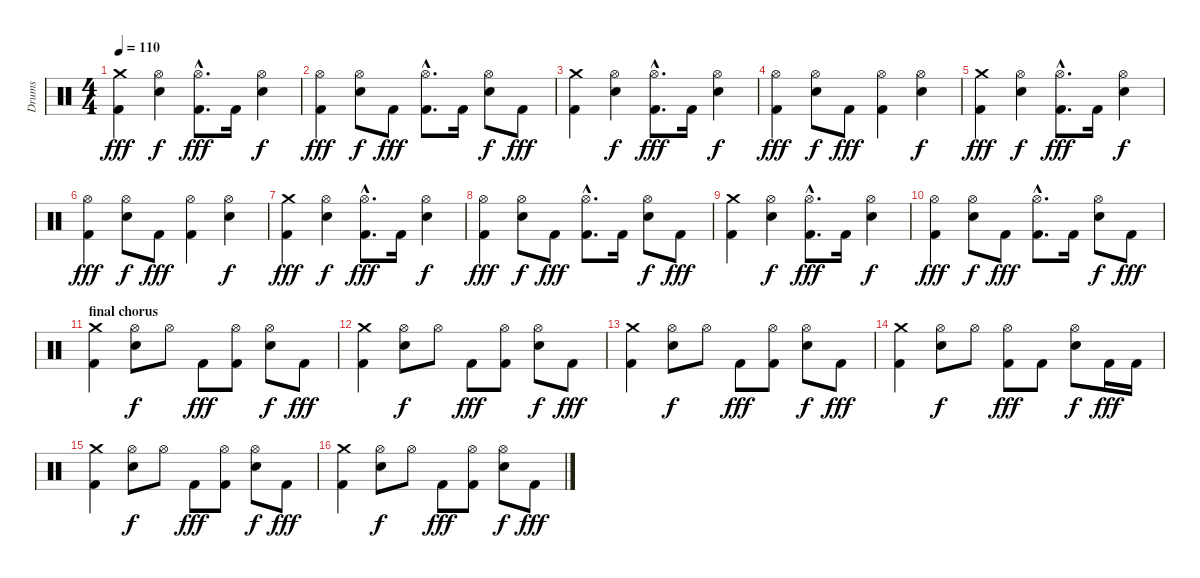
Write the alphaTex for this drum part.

\track ("Drums" "Drums") {instrument percussion}
\staff {score}
\articulation defaults
\ts (4 4)
\tempo 110
\clef neutral
\ks c
("Crash medium (hit)" "Kick (hit) 2").4{dy fff} ("Hi-Hat (open)" "Electric Snare (hit)").4{dy f} ("Hi-Hat (open)"{hac} "Kick (hit) 2"{hac}).8{d dy fff} "Kick (hit) 2".16 ("Hi-Hat (open)" "Electric Snare (hit)").4{dy f} |
("Hi-Hat (open)" "Kick (hit) 2").4{dy fff} ("Hi-Hat (open)" "Electric Snare (hit)").8{dy f} "Kick (hit) 2".8{dy fff} ("Hi-Hat (open)"{hac} "Kick (hit) 2"{hac}).8{d} "Kick (hit) 2".16 ("Hi-Hat (open)" "Electric Snare (hit)").8{dy f} "Kick (hit) 2".8{dy fff} |
("Crash medium (hit)" "Kick (hit) 2").4 ("Hi-Hat (open)" "Electric Snare (hit)").4{dy f} ("Hi-Hat (open)"{hac} "Kick (hit) 2"{hac}).8{d dy fff} "Kick (hit) 2".16 ("Hi-Hat (open)" "Electric Snare (hit)").4{dy f} |
("Hi-Hat (open)" "Kick (hit) 2").4{dy fff} ("Hi-Hat (open)" "Electric Snare (hit)").8{dy f} "Kick (hit) 2".8{dy fff} ("Hi-Hat (open)" "Kick (hit) 2").4 ("Hi-Hat (open)" "Electric Snare (hit)").4{dy f} |
("Crash medium (hit)" "Kick (hit) 2").4{dy fff} ("Hi-Hat (open)" "Electric Snare (hit)").4{dy f} ("Hi-Hat (open)"{hac} "Kick (hit) 2"{hac}).8{d dy fff} "Kick (hit) 2".16 ("Hi-Hat (open)" "Electric Snare (hit)").4{dy f} |
("Hi-Hat (open)" "Kick (hit) 2").4{dy fff} ("Hi-Hat (open)" "Electric Snare (hit)").8{dy f} "Kick (hit) 2".8{dy fff} ("Hi-Hat (open)" "Kick (hit) 2").4 ("Hi-Hat (open)" "Electric Snare (hit)").4{dy f} |
("Crash medium (hit)" "Kick (hit) 2").4{dy fff} ("Hi-Hat (open)" "Electric Snare (hit)").4{dy f} ("Hi-Hat (open)"{hac} "Kick (hit) 2"{hac}).8{d dy fff} "Kick (hit) 2".16 ("Hi-Hat (open)" "Electric Snare (hit)").4{dy f} |
("Hi-Hat (open)" "Kick (hit) 2").4{dy fff} ("Hi-Hat (open)" "Electric Snare (hit)").8{dy f} "Kick (hit) 2".8{dy fff} ("Hi-Hat (open)"{hac} "Kick (hit) 2"{hac}).8{d} "Kick (hit) 2".16 ("Hi-Hat (open)" "Electric Snare (hit)").8{dy f} "Kick (hit) 2".8{dy fff} |
("Crash medium (hit)" "Kick (hit) 2").4 ("Hi-Hat (open)" "Electric Snare (hit)").4{dy f} ("Hi-Hat (open)"{hac} "Kick (hit) 2"{hac}).8{d dy fff} "Kick (hit) 2".16 ("Hi-Hat (open)" "Electric Snare (hit)").4{dy f} |
("Hi-Hat (open)" "Kick (hit) 2").4{dy fff} ("Hi-Hat (open)" "Electric Snare (hit)").8{dy f} "Kick (hit) 2".8{dy fff} ("Hi-Hat (open)"{hac} "Kick (hit) 2"{hac}).8{d} "Kick (hit) 2".16 ("Hi-Hat (open)" "Electric Snare (hit)").8{dy f} "Kick (hit) 2".8{dy fff} |
\section ("" "final chorus")
("Crash medium (hit)" "Kick (hit) 2").4 ("Hi-Hat (open)" "Electric Snare (hit)").8{dy f} "Hi-Hat (open)".8 "Kick (hit) 2".8{dy fff} ("Hi-Hat (open)" "Kick (hit) 2").8 ("Hi-Hat (open)" "Electric Snare (hit)").8{dy f} "Kick (hit) 2".8{dy fff} |
("Crash medium (hit)" "Kick (hit) 2").4 ("Hi-Hat (open)" "Electric Snare (hit)").8{dy f} "Hi-Hat (open)".8 "Kick (hit) 2".8{dy fff} ("Hi-Hat (open)" "Kick (hit) 2").8 ("Hi-Hat (open)" "Electric Snare (hit)").8{dy f} "Kick (hit) 2".8{dy fff} |
("Crash medium (hit)" "Kick (hit) 2").4 ("Hi-Hat (open)" "Electric Snare (hit)").8{dy f} "Hi-Hat (open)".8 "Kick (hit) 2".8{dy fff} ("Hi-Hat (open)" "Kick (hit) 2").8 ("Hi-Hat (open)" "Electric Snare (hit)").8{dy f} "Kick (hit) 2".8{dy fff} |
("Crash medium (hit)" "Kick (hit) 2").4 ("Hi-Hat (open)" "Electric Snare (hit)").8{dy f} "Hi-Hat (open)".8 ("Hi-Hat (open)" "Kick (hit) 2").8{dy fff} "Kick (hit) 2".8 ("Hi-Hat (open)" "Electric Snare (hit)").8{dy f} "Kick (hit) 2".16{dy fff} "Kick (hit) 2".16 |
("Crash medium (hit)" "Kick (hit) 2").4 ("Hi-Hat (open)" "Electric Snare (hit)").8{dy f} "Hi-Hat (open)".8 "Kick (hit) 2".8{dy fff} ("Hi-Hat (open)" "Kick (hit) 2").8 ("Hi-Hat (open)" "Electric Snare (hit)").8{dy f} "Kick (hit) 2".8{dy fff} |
("Crash medium (hit)" "Kick (hit) 2").4 ("Hi-Hat (open)" "Electric Snare (hit)").8{dy f} "Hi-Hat (open)".8 "Kick (hit) 2".8{dy fff} ("Hi-Hat (open)" "Kick (hit) 2").8 ("Hi-Hat (open)" "Electric Snare (hit)").8{dy f} "Kick (hit) 2".8{dy fff}
